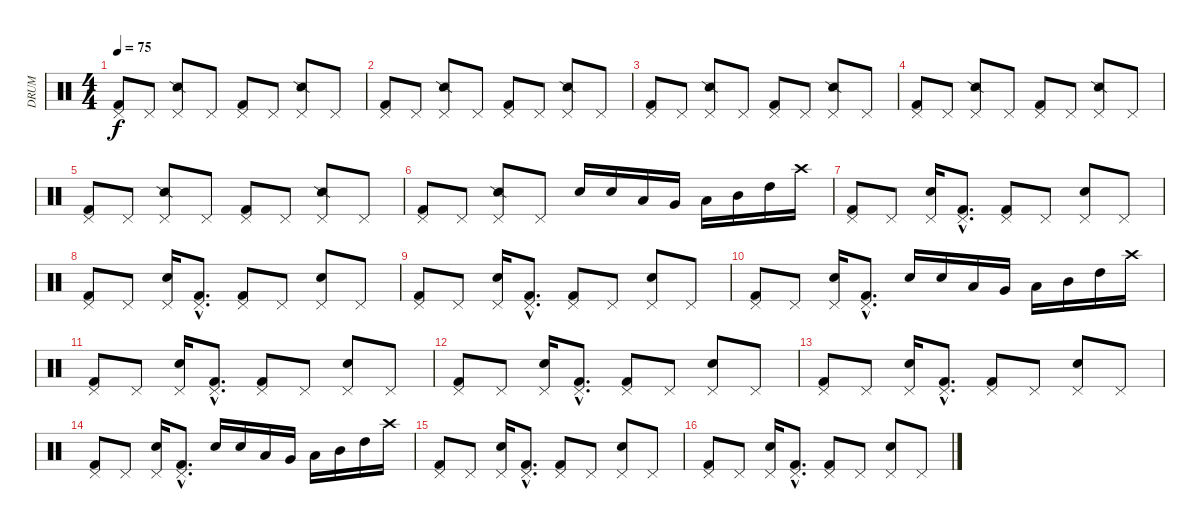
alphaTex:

\track ("DRUM" "DRUM") {instrument percussion}
\staff {score}
\articulation defaults
\ts (4 4)
\tempo 75
\clef neutral
\ks c
("Kick (hit) 2" "Pedal Hi-Hat (hit)").8{dy f} "Pedal Hi-Hat (hit)".8 ("Snare (side stick) 2" "Pedal Hi-Hat (hit)").8 "Pedal Hi-Hat (hit)".8 ("Kick (hit) 2" "Pedal Hi-Hat (hit)").8 "Pedal Hi-Hat (hit)".8 ("Snare (side stick) 2" "Pedal Hi-Hat (hit)").8 "Pedal Hi-Hat (hit)".8 |
("Kick (hit) 2" "Pedal Hi-Hat (hit)").8 "Pedal Hi-Hat (hit)".8 ("Snare (side stick) 2" "Pedal Hi-Hat (hit)").8 "Pedal Hi-Hat (hit)".8 ("Kick (hit) 2" "Pedal Hi-Hat (hit)").8 "Pedal Hi-Hat (hit)".8 ("Snare (side stick) 2" "Pedal Hi-Hat (hit)").8 "Pedal Hi-Hat (hit)".8 |
("Kick (hit) 2" "Pedal Hi-Hat (hit)").8 "Pedal Hi-Hat (hit)".8 ("Snare (side stick) 2" "Pedal Hi-Hat (hit)").8 "Pedal Hi-Hat (hit)".8 ("Kick (hit) 2" "Pedal Hi-Hat (hit)").8 "Pedal Hi-Hat (hit)".8 ("Snare (side stick) 2" "Pedal Hi-Hat (hit)").8 "Pedal Hi-Hat (hit)".8 |
("Kick (hit) 2" "Pedal Hi-Hat (hit)").8 "Pedal Hi-Hat (hit)".8 ("Snare (side stick) 2" "Pedal Hi-Hat (hit)").8 "Pedal Hi-Hat (hit)".8 ("Kick (hit) 2" "Pedal Hi-Hat (hit)").8 "Pedal Hi-Hat (hit)".8 ("Snare (side stick) 2" "Pedal Hi-Hat (hit)").8 "Pedal Hi-Hat (hit)".8 |
("Kick (hit) 2" "Pedal Hi-Hat (hit)").8 "Pedal Hi-Hat (hit)".8 ("Snare (side stick) 2" "Pedal Hi-Hat (hit)").8 "Pedal Hi-Hat (hit)".8 ("Kick (hit) 2" "Pedal Hi-Hat (hit)").8 "Pedal Hi-Hat (hit)".8 ("Snare (side stick) 2" "Pedal Hi-Hat (hit)").8 "Pedal Hi-Hat (hit)".8 |
("Kick (hit) 2" "Pedal Hi-Hat (hit)").8 "Pedal Hi-Hat (hit)".8 ("Snare (side stick) 2" "Pedal Hi-Hat (hit)").8 "Pedal Hi-Hat (hit)".8 "Electric Snare (hit)".16 "Electric Snare (hit)".16 "Low Floor Tom (hit)".16 "Very Low Tom (hit)".16 "Low Tom (hit)".16 "Mid Tom (hit)".16 "High Tom (hit)".16 "Crash high (hit)".16 |
("Kick (hit) 2" "Pedal Hi-Hat (hit)").8 "Pedal Hi-Hat (hit)".8 ("Electric Snare (hit)" "Pedal Hi-Hat (hit)").16 ("Kick (hit) 2"{hac} "Pedal Hi-Hat (hit)"{hac}).8{d} ("Kick (hit) 2" "Pedal Hi-Hat (hit)").8 "Pedal Hi-Hat (hit)".8 ("Electric Snare (hit)" "Pedal Hi-Hat (hit)").8 "Pedal Hi-Hat (hit)".8 |
("Kick (hit) 2" "Pedal Hi-Hat (hit)").8 "Pedal Hi-Hat (hit)".8 ("Electric Snare (hit)" "Pedal Hi-Hat (hit)").16 ("Kick (hit) 2"{hac} "Pedal Hi-Hat (hit)"{hac}).8{d} ("Kick (hit) 2" "Pedal Hi-Hat (hit)").8 "Pedal Hi-Hat (hit)".8 ("Electric Snare (hit)" "Pedal Hi-Hat (hit)").8 "Pedal Hi-Hat (hit)".8 |
("Kick (hit) 2" "Pedal Hi-Hat (hit)").8 "Pedal Hi-Hat (hit)".8 ("Electric Snare (hit)" "Pedal Hi-Hat (hit)").16 ("Kick (hit) 2"{hac} "Pedal Hi-Hat (hit)"{hac}).8{d} ("Kick (hit) 2" "Pedal Hi-Hat (hit)").8 "Pedal Hi-Hat (hit)".8 ("Electric Snare (hit)" "Pedal Hi-Hat (hit)").8 "Pedal Hi-Hat (hit)".8 |
("Kick (hit) 2" "Pedal Hi-Hat (hit)").8 "Pedal Hi-Hat (hit)".8 ("Electric Snare (hit)" "Pedal Hi-Hat (hit)").16 ("Kick (hit) 2"{hac} "Pedal Hi-Hat (hit)"{hac}).8{d} "Electric Snare (hit)".16 "Electric Snare (hit)".16 "Low Floor Tom (hit)".16 "Very Low Tom (hit)".16 "Low Tom (hit)".16 "Mid Tom (hit)".16 "High Tom (hit)".16 "Crash high (hit)".16 |
("Kick (hit) 2" "Pedal Hi-Hat (hit)").8 "Pedal Hi-Hat (hit)".8 ("Electric Snare (hit)" "Pedal Hi-Hat (hit)").16 ("Kick (hit) 2"{hac} "Pedal Hi-Hat (hit)"{hac}).8{d} ("Kick (hit) 2" "Pedal Hi-Hat (hit)").8 "Pedal Hi-Hat (hit)".8 ("Electric Snare (hit)" "Pedal Hi-Hat (hit)").8 "Pedal Hi-Hat (hit)".8 |
("Kick (hit) 2" "Pedal Hi-Hat (hit)").8 "Pedal Hi-Hat (hit)".8 ("Electric Snare (hit)" "Pedal Hi-Hat (hit)").16 ("Kick (hit) 2"{hac} "Pedal Hi-Hat (hit)"{hac}).8{d} ("Kick (hit) 2" "Pedal Hi-Hat (hit)").8 "Pedal Hi-Hat (hit)".8 ("Electric Snare (hit)" "Pedal Hi-Hat (hit)").8 "Pedal Hi-Hat (hit)".8 |
("Kick (hit) 2" "Pedal Hi-Hat (hit)").8 "Pedal Hi-Hat (hit)".8 ("Electric Snare (hit)" "Pedal Hi-Hat (hit)").16 ("Kick (hit) 2"{hac} "Pedal Hi-Hat (hit)"{hac}).8{d} ("Kick (hit) 2" "Pedal Hi-Hat (hit)").8 "Pedal Hi-Hat (hit)".8 ("Electric Snare (hit)" "Pedal Hi-Hat (hit)").8 "Pedal Hi-Hat (hit)".8 |
("Kick (hit) 2" "Pedal Hi-Hat (hit)").8 "Pedal Hi-Hat (hit)".8 ("Electric Snare (hit)" "Pedal Hi-Hat (hit)").16 ("Kick (hit) 2"{hac} "Pedal Hi-Hat (hit)"{hac}).8{d} "Electric Snare (hit)".16 "Electric Snare (hit)".16 "Low Floor Tom (hit)".16 "Very Low Tom (hit)".16 "Low Tom (hit)".16 "Mid Tom (hit)".16 "High Tom (hit)".16 "Crash high (hit)".16 |
("Kick (hit) 2" "Pedal Hi-Hat (hit)").8 "Pedal Hi-Hat (hit)".8 ("Electric Snare (hit)" "Pedal Hi-Hat (hit)").16 ("Kick (hit) 2"{hac} "Pedal Hi-Hat (hit)"{hac}).8{d} ("Kick (hit) 2" "Pedal Hi-Hat (hit)").8 "Pedal Hi-Hat (hit)".8 ("Electric Snare (hit)" "Pedal Hi-Hat (hit)").8 "Pedal Hi-Hat (hit)".8 |
("Kick (hit) 2" "Pedal Hi-Hat (hit)").8 "Pedal Hi-Hat (hit)".8 ("Electric Snare (hit)" "Pedal Hi-Hat (hit)").16 ("Kick (hit) 2"{hac} "Pedal Hi-Hat (hit)"{hac}).8{d} ("Kick (hit) 2" "Pedal Hi-Hat (hit)").8 "Pedal Hi-Hat (hit)".8 ("Electric Snare (hit)" "Pedal Hi-Hat (hit)").8 "Pedal Hi-Hat (hit)".8
